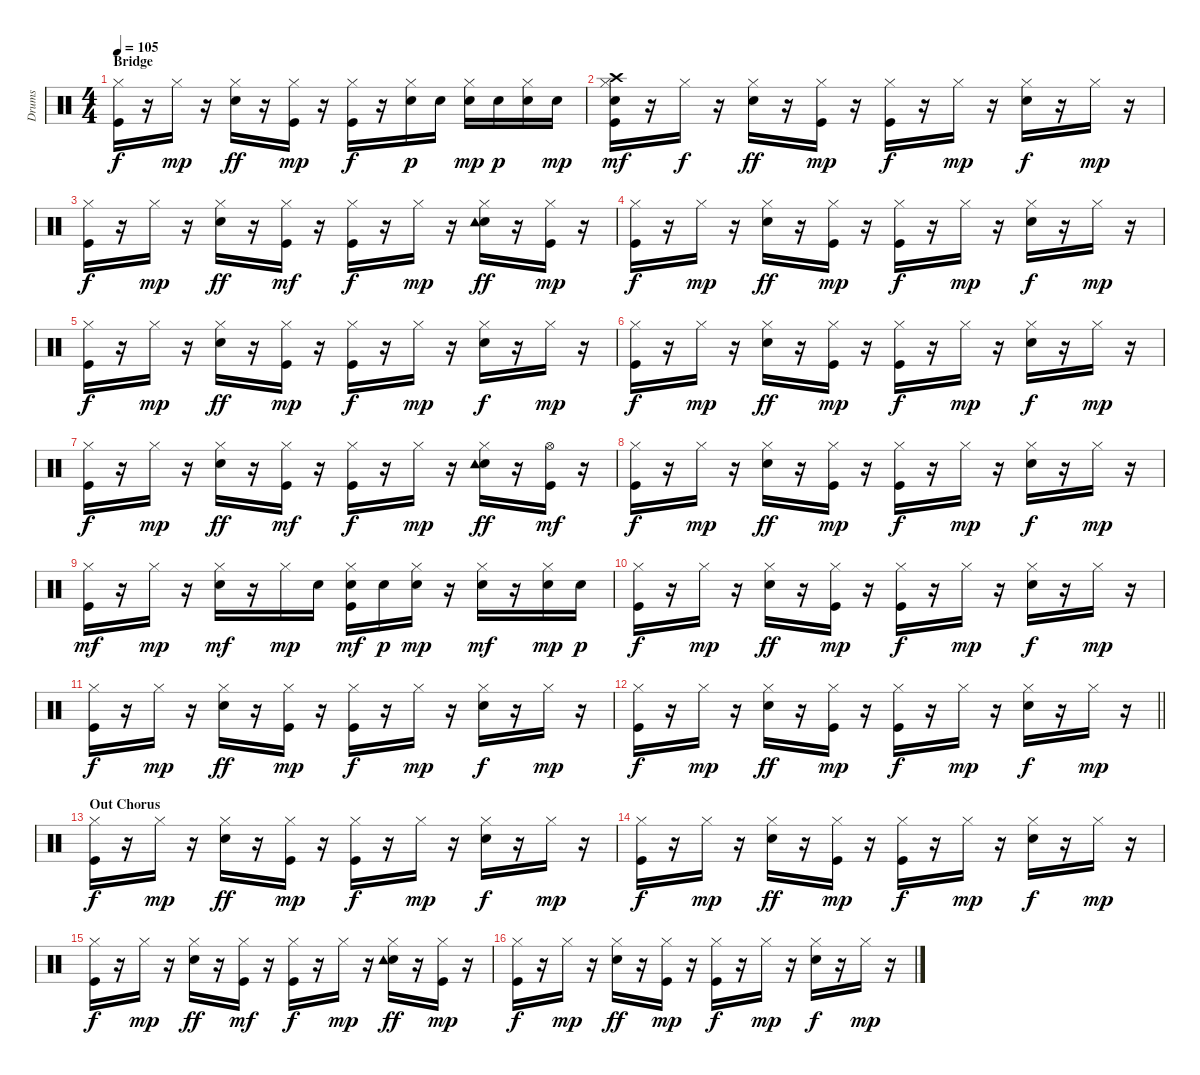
\track ("Drums   " "Drums   ") {instrument percussion}
\staff {score}
\articulation defaults
\ts (4 4)
\section ("" "Bridge")
\tempo 105
\clef neutral
\ks c
("Kick (hit)" "Hi-Hat (closed)").16{dy f} r.16 "Hi-Hat (closed)".16{dy mp} r.16 ("Snare (hit) 2" "Hi-Hat (closed)").16{dy ff} r.16 ("Kick (hit)" "Hi-Hat (closed)").16{dy mp} r.16 ("Kick (hit)" "Hi-Hat (closed)").16{dy f} r.16 ("Snare (hit) 2" "Hi-Hat (closed)").16{dy p} "Snare (hit) 2".16 ("Snare (hit) 2" "Hi-Hat (closed)").16{dy mp} "Snare (hit) 2".16{dy p} ("Snare (hit) 2" "Hi-Hat (closed)").16 "Snare (hit) 2".16{dy mp} |
("Kick (hit)" "Snare (hit) 2" "Hi-Hat (closed)" "Crash high (hit)").16{dy mf} r.16 "Hi-Hat (closed)".16{dy f} r.16 ("Snare (hit) 2" "Hi-Hat (closed)").16{dy ff} r.16 ("Kick (hit)" "Hi-Hat (closed)").16{dy mp} r.16 ("Kick (hit)" "Hi-Hat (closed)").16{dy f} r.16 "Hi-Hat (closed)".16{dy mp} r.16 ("Snare (hit) 2" "Hi-Hat (closed)").16{dy f} r.16 "Hi-Hat (closed)".16{dy mp} r.16 |
("Kick (hit)" "Hi-Hat (closed)").16{dy f} r.16 "Hi-Hat (closed)".16{dy mp} r.16 ("Snare (hit) 2" "Hi-Hat (closed)").16{dy ff} r.16 ("Kick (hit)" "Hi-Hat (closed)").16{dy mf} r.16 ("Kick (hit)" "Hi-Hat (closed)").16{dy f} r.16 "Hi-Hat (closed)".16{dy mp} r.16 ("Snare (hit) 2" "Hi-Hat (closed)" "Tambourine (hit)").16{dy ff} r.16 ("Kick (hit)" "Hi-Hat (closed)").16{dy mp} r.16 |
("Kick (hit)" "Hi-Hat (closed)").16{dy f} r.16 "Hi-Hat (closed)".16{dy mp} r.16 ("Snare (hit) 2" "Hi-Hat (closed)").16{dy ff} r.16 ("Kick (hit)" "Hi-Hat (closed)").16{dy mp} r.16 ("Kick (hit)" "Hi-Hat (closed)").16{dy f} r.16 "Hi-Hat (closed)".16{dy mp} r.16 ("Snare (hit) 2" "Hi-Hat (closed)").16{dy f} r.16 "Hi-Hat (closed)".16{dy mp} r.16 |
("Kick (hit)" "Hi-Hat (closed)").16{dy f} r.16 "Hi-Hat (closed)".16{dy mp} r.16 ("Snare (hit) 2" "Hi-Hat (closed)").16{dy ff} r.16 ("Kick (hit)" "Hi-Hat (closed)").16{dy mp} r.16 ("Kick (hit)" "Hi-Hat (closed)").16{dy f} r.16 "Hi-Hat (closed)".16{dy mp} r.16 ("Snare (hit) 2" "Hi-Hat (closed)").16{dy f} r.16 "Hi-Hat (closed)".16{dy mp} r.16 |
("Kick (hit)" "Hi-Hat (closed)").16{dy f} r.16 "Hi-Hat (closed)".16{dy mp} r.16 ("Snare (hit) 2" "Hi-Hat (closed)").16{dy ff} r.16 ("Kick (hit)" "Hi-Hat (closed)").16{dy mp} r.16 ("Kick (hit)" "Hi-Hat (closed)").16{dy f} r.16 "Hi-Hat (closed)".16{dy mp} r.16 ("Snare (hit) 2" "Hi-Hat (closed)").16{dy f} r.16 "Hi-Hat (closed)".16{dy mp} r.16 |
("Kick (hit)" "Hi-Hat (closed)").16{dy f} r.16 "Hi-Hat (closed)".16{dy mp} r.16 ("Snare (hit) 2" "Hi-Hat (closed)").16{dy ff} r.16 ("Kick (hit)" "Hi-Hat (closed)").16{dy mf} r.16 ("Kick (hit)" "Hi-Hat (closed)").16{dy f} r.16 "Hi-Hat (closed)".16{dy mp} r.16 ("Snare (hit) 2" "Hi-Hat (closed)" "Tambourine (hit)").16{dy ff} r.16 ("Kick (hit)" "Hi-Hat (open)").16{dy mf} r.16 |
("Kick (hit)" "Hi-Hat (closed)").16{dy f} r.16 "Hi-Hat (closed)".16{dy mp} r.16 ("Snare (hit) 2" "Hi-Hat (closed)").16{dy ff} r.16 ("Kick (hit)" "Hi-Hat (closed)").16{dy mp} r.16 ("Kick (hit)" "Hi-Hat (closed)").16{dy f} r.16 "Hi-Hat (closed)".16{dy mp} r.16 ("Snare (hit) 2" "Hi-Hat (closed)").16{dy f} r.16 "Hi-Hat (closed)".16{dy mp} r.16 |
("Kick (hit)" "Hi-Hat (closed)").16{dy mf} r.16 "Hi-Hat (closed)".16{dy mp} r.16 ("Snare (hit) 2" "Hi-Hat (closed)").16{dy mf} r.16 "Hi-Hat (closed)".16{dy mp} "Snare (hit) 2".16 ("Kick (hit)" "Snare (hit) 2" "Hi-Hat (closed)").16{dy mf} "Snare (hit) 2".16{dy p} ("Snare (hit) 2" "Hi-Hat (closed)").16{dy mp} r.16 ("Snare (hit) 2" "Hi-Hat (closed)").16{dy mf} r.16 ("Snare (hit) 2" "Hi-Hat (closed)").16{dy mp} "Snare (hit) 2".16{dy p} |
("Kick (hit)" "Hi-Hat (closed)").16{dy f} r.16 "Hi-Hat (closed)".16{dy mp} r.16 ("Snare (hit) 2" "Hi-Hat (closed)").16{dy ff} r.16 ("Kick (hit)" "Hi-Hat (closed)").16{dy mp} r.16 ("Kick (hit)" "Hi-Hat (closed)").16{dy f} r.16 "Hi-Hat (closed)".16{dy mp} r.16 ("Snare (hit) 2" "Hi-Hat (closed)").16{dy f} r.16 "Hi-Hat (closed)".16{dy mp} r.16 |
("Kick (hit)" "Hi-Hat (closed)").16{dy f} r.16 "Hi-Hat (closed)".16{dy mp} r.16 ("Snare (hit) 2" "Hi-Hat (closed)").16{dy ff} r.16 ("Kick (hit)" "Hi-Hat (closed)").16{dy mp} r.16 ("Kick (hit)" "Hi-Hat (closed)").16{dy f} r.16 "Hi-Hat (closed)".16{dy mp} r.16 ("Snare (hit) 2" "Hi-Hat (closed)").16{dy f} r.16 "Hi-Hat (closed)".16{dy mp} r.16 |
\barLineRight lightlight
("Kick (hit)" "Hi-Hat (closed)").16{dy f} r.16 "Hi-Hat (closed)".16{dy mp} r.16 ("Snare (hit) 2" "Hi-Hat (closed)").16{dy ff} r.16 ("Kick (hit)" "Hi-Hat (closed)").16{dy mp} r.16 ("Kick (hit)" "Hi-Hat (closed)").16{dy f} r.16 "Hi-Hat (closed)".16{dy mp} r.16 ("Snare (hit) 2" "Hi-Hat (closed)").16{dy f} r.16 "Hi-Hat (closed)".16{dy mp} r.16 |
\section ("" "Out Chorus")
("Kick (hit)" "Hi-Hat (closed)").16{dy f} r.16 "Hi-Hat (closed)".16{dy mp} r.16 ("Snare (hit) 2" "Hi-Hat (closed)").16{dy ff} r.16 ("Kick (hit)" "Hi-Hat (closed)").16{dy mp} r.16 ("Kick (hit)" "Hi-Hat (closed)").16{dy f} r.16 "Hi-Hat (closed)".16{dy mp} r.16 ("Snare (hit) 2" "Hi-Hat (closed)").16{dy f} r.16 "Hi-Hat (closed)".16{dy mp} r.16 |
("Kick (hit)" "Hi-Hat (closed)").16{dy f} r.16 "Hi-Hat (closed)".16{dy mp} r.16 ("Snare (hit) 2" "Hi-Hat (closed)").16{dy ff} r.16 ("Kick (hit)" "Hi-Hat (closed)").16{dy mp} r.16 ("Kick (hit)" "Hi-Hat (closed)").16{dy f} r.16 "Hi-Hat (closed)".16{dy mp} r.16 ("Snare (hit) 2" "Hi-Hat (closed)").16{dy f} r.16 "Hi-Hat (closed)".16{dy mp} r.16 |
("Kick (hit)" "Hi-Hat (closed)").16{dy f} r.16 "Hi-Hat (closed)".16{dy mp} r.16 ("Snare (hit) 2" "Hi-Hat (closed)").16{dy ff} r.16 ("Kick (hit)" "Hi-Hat (closed)").16{dy mf} r.16 ("Kick (hit)" "Hi-Hat (closed)").16{dy f} r.16 "Hi-Hat (closed)".16{dy mp} r.16 ("Snare (hit) 2" "Hi-Hat (closed)" "Tambourine (hit)").16{dy ff} r.16 ("Kick (hit)" "Hi-Hat (closed)").16{dy mp} r.16 |
("Kick (hit)" "Hi-Hat (closed)").16{dy f} r.16 "Hi-Hat (closed)".16{dy mp} r.16 ("Snare (hit) 2" "Hi-Hat (closed)").16{dy ff} r.16 ("Kick (hit)" "Hi-Hat (closed)").16{dy mp} r.16 ("Kick (hit)" "Hi-Hat (closed)").16{dy f} r.16 "Hi-Hat (closed)".16{dy mp} r.16 ("Snare (hit) 2" "Hi-Hat (closed)").16{dy f} r.16 "Hi-Hat (closed)".16{dy mp} r.16
